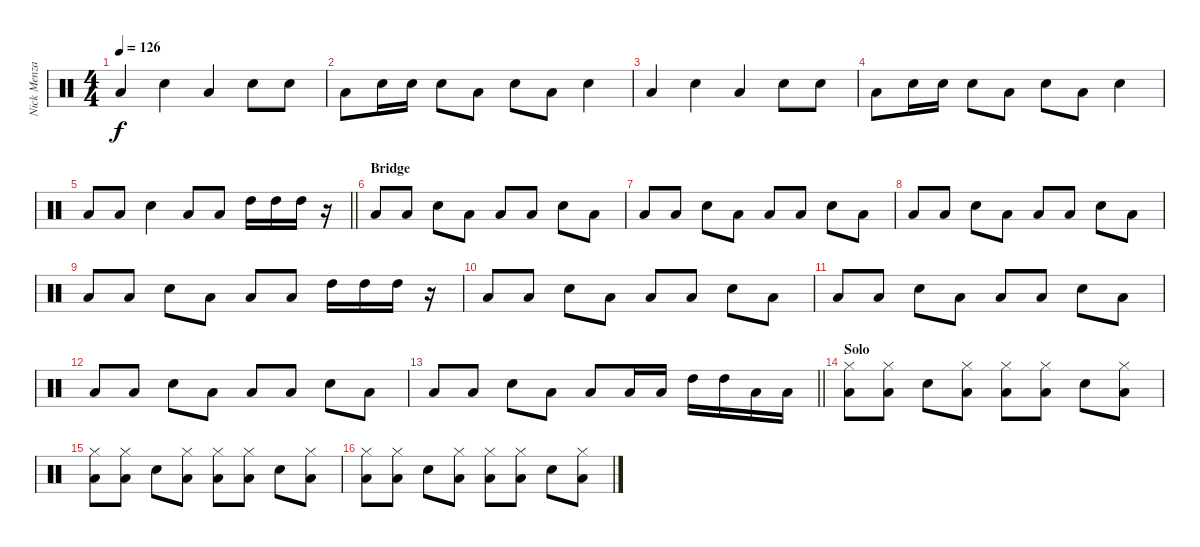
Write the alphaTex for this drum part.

\track ("Nick Menza" "Nick Menza") {instrument percussion}
\staff {score}
\articulation defaults
\ts (4 4)
\tempo 126
\clef neutral
\ks c "Low Tom (hit)".4{dy f} "Electric Snare (hit)".4 "Low Tom (hit)".4 "Electric Snare (hit)".8 "Electric Snare (hit)".8
|
"Low Tom (hit)".8 "Electric Snare (hit)".16 "Electric Snare (hit)".16 "Electric Snare (hit)".8 "Low Tom (hit)".8 "Electric Snare (hit)".8 "Low Tom (hit)".8 "Electric Snare (hit)".4 |
"Low Tom (hit)".4 "Electric Snare (hit)".4 "Low Tom (hit)".4 "Electric Snare (hit)".8 "Electric Snare (hit)".8 |
"Low Tom (hit)".8 "Electric Snare (hit)".16 "Electric Snare (hit)".16 "Electric Snare (hit)".8 "Low Tom (hit)".8 "Electric Snare (hit)".8 "Low Tom (hit)".8 "Electric Snare (hit)".4 |
\barLineRight lightlight "Low Tom (hit)".8 "Low Tom (hit)".8 "Electric Snare (hit)".4 "Low Tom (hit)".8 "Low Tom (hit)".8 "High Tom (hit)".16 "High Tom (hit)".16 "High Tom (hit)".16
r.16 |
\section ("" "Bridge")
"Low Tom (hit)".8 "Low Tom (hit)".8 "Electric Snare (hit)".8 "Low Tom (hit)".8 "Low Tom (hit)".8 "Low Tom (hit)".8 "Electric Snare (hit)".8 "Low Tom (hit)".8 |
"Low Tom (hit)".8 "Low Tom (hit)".8 "Electric Snare (hit)".8 "Low Tom (hit)".8 "Low Tom (hit)".8 "Low Tom (hit)".8 "Electric Snare (hit)".8 "Low Tom (hit)".8 |
"Low Tom (hit)".8 "Low Tom (hit)".8 "Electric Snare (hit)".8 "Low Tom (hit)".8 "Low Tom (hit)".8 "Low Tom (hit)".8 "Electric Snare (hit)".8 "Low Tom (hit)".8 |
"Low Tom (hit)".8 "Low Tom (hit)".8 "Electric Snare (hit)".8 "Low Tom (hit)".8 "Low Tom (hit)".8 "Low Tom (hit)".8 "High Tom (hit)".16 "High Tom (hit)".16 "High Tom (hit)".16 r.16 |
"Low Tom (hit)".8 "Low Tom (hit)".8 "Electric Snare (hit)".8 "Low Tom (hit)".8 "Low Tom (hit)".8 "Low Tom (hit)".8 "Electric Snare (hit)".8 "Low Tom (hit)".8 |
"Low Tom (hit)".8 "Low Tom (hit)".8 "Electric Snare (hit)".8 "Low Tom (hit)".8 "Low Tom (hit)".8 "Low Tom (hit)".8 "Electric Snare (hit)".8 "Low Tom (hit)".8 |
"Low Tom (hit)".8 "Low Tom (hit)".8 "Electric Snare (hit)".8 "Low Tom (hit)".8 "Low Tom (hit)".8 "Low Tom (hit)".8 "Electric Snare (hit)".8 "Low Tom (hit)".8 |
\barLineRight lightlight "Low Tom (hit)".8 "Low Tom (hit)".8 "Electric Snare (hit)".8 "Low Tom (hit)".8 "Low Tom (hit)".8 "Low Tom (hit)".16 "Low Tom (hit)".16 "High Tom (hit)".16 "High Tom (hit)".16 "Low Tom (hit)".16 "Low Tom (hit)".16
|
\section ("" "Solo")
("Low Tom (hit)" "Hi-Hat (closed)").8 ("Low Tom (hit)" "Hi-Hat (closed)").8 "Electric Snare (hit)".8 ("Low Tom (hit)" "Hi-Hat (closed)").8 ("Low Tom (hit)" "Hi-Hat (closed)").8 ("Low Tom (hit)" "Hi-Hat (closed)").8 "Electric Snare (hit)".8 ("Low Tom (hit)" "Hi-Hat (closed)").8 |
("Low Tom (hit)" "Hi-Hat (closed)").8 ("Low Tom (hit)" "Hi-Hat (closed)").8 "Electric Snare (hit)".8 ("Low Tom (hit)" "Hi-Hat (closed)").8 ("Low Tom (hit)" "Hi-Hat (closed)").8 ("Low Tom (hit)" "Hi-Hat (closed)").8 "Electric Snare (hit)".8 ("Low Tom (hit)" "Hi-Hat (closed)").8 |
("Low Tom (hit)" "Hi-Hat (closed)").8 ("Low Tom (hit)" "Hi-Hat (closed)").8 "Electric Snare (hit)".8 ("Low Tom (hit)" "Hi-Hat (closed)").8 ("Low Tom (hit)" "Hi-Hat (closed)").8 ("Low Tom (hit)" "Hi-Hat (closed)").8 "Electric Snare (hit)".8 ("Low Tom (hit)" "Hi-Hat (closed)").8
